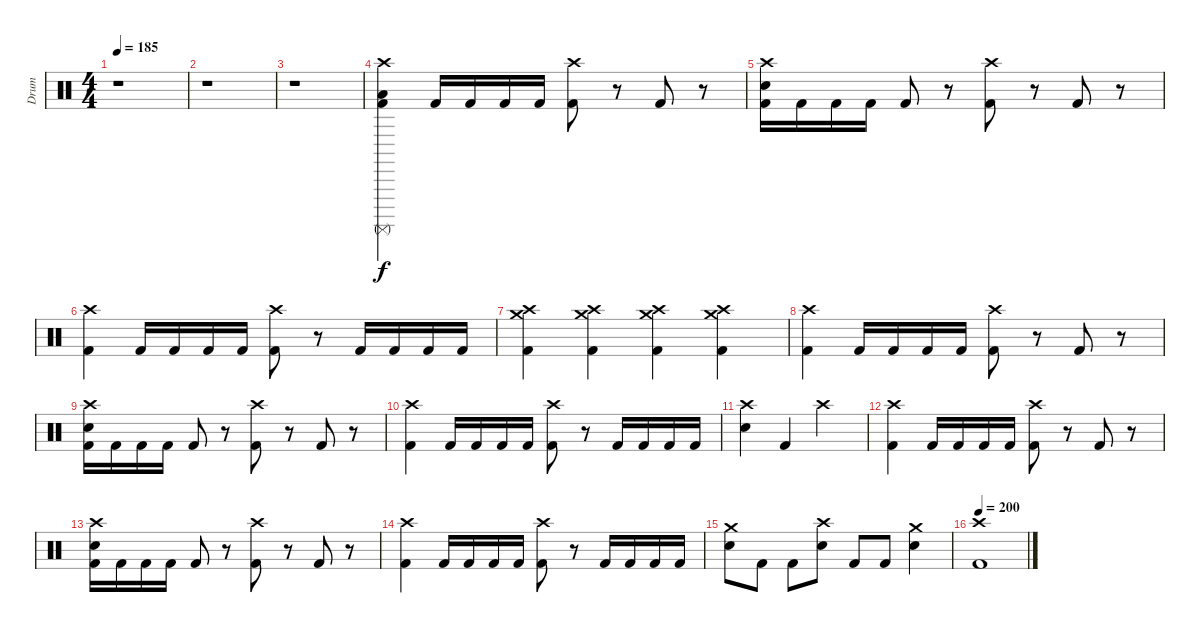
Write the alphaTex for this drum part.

\track ("Drum" "Drum") {instrument percussion}
\staff
\articulation defaults
\ts (4 4)
\tempo 185
\clef neutral
\ks c
r.1{dy f} |
r.1 |
r.1 |
("Crash high (hit)" "Surdo (mute)" "Low Tom (hit)" "Kick (hit) 2").4 "Kick (hit) 2".16 "Kick (hit) 2".16 "Kick (hit) 2".16 "Kick (hit) 2".16 ("Crash high (hit)" "Kick (hit) 2").8 r.8 "Kick (hit) 2".8 r.8 |
("Crash high (hit)" "Electric Snare (hit)" "Kick (hit) 2").16 "Kick (hit) 2".16 "Kick (hit) 2".16 "Kick (hit) 2".16 "Kick (hit) 2".8 r.8 ("Crash high (hit)" "Kick (hit) 2").8 r.8 "Kick (hit) 2".8 r.8 |
("Crash high (hit)" "Kick (hit) 2").4 "Kick (hit) 2".16 "Kick (hit) 2".16 "Kick (hit) 2".16 "Kick (hit) 2".16 ("Crash high (hit)" "Kick (hit) 2").8 r.8 "Kick (hit) 2".16 "Kick (hit) 2".16 "Kick (hit) 2".16 "Kick (hit) 2".16 |
("Crash high (hit)" "Crash medium (hit)" "Kick (hit) 2").4 ("Crash high (hit)" "Crash medium (hit)" "Kick (hit) 2").4 ("Crash high (hit)" "Crash medium (hit)" "Kick (hit) 2").4 ("Crash high (hit)" "Crash medium (hit)" "Kick (hit) 2").4 |
("Crash high (hit)" "Kick (hit) 2").4 "Kick (hit) 2".16 "Kick (hit) 2".16 "Kick (hit) 2".16 "Kick (hit) 2".16 ("Crash high (hit)" "Kick (hit) 2").8 r.8 "Kick (hit) 2".8 r.8 |
("Crash high (hit)" "Electric Snare (hit)" "Kick (hit) 2").16 "Kick (hit) 2".16 "Kick (hit) 2".16 "Kick (hit) 2".16 "Kick (hit) 2".8 r.8 ("Crash high (hit)" "Kick (hit) 2").8 r.8 "Kick (hit) 2".8 r.8 |
("Crash high (hit)" "Kick (hit) 2").4 "Kick (hit) 2".16 "Kick (hit) 2".16 "Kick (hit) 2".16 "Kick (hit) 2".16 ("Crash high (hit)" "Kick (hit) 2").8 r.8 "Kick (hit) 2".16 "Kick (hit) 2".16 "Kick (hit) 2".16 "Kick (hit) 2".16 |
("Crash high (hit)" "Electric Snare (hit)").4 "Kick (hit) 2".4 "Crash high (hit)".2 |
("Crash high (hit)" "Kick (hit) 2").4 "Kick (hit) 2".16 "Kick (hit) 2".16 "Kick (hit) 2".16 "Kick (hit) 2".16 ("Crash high (hit)" "Kick (hit) 2").8 r.8 "Kick (hit) 2".8 r.8 |
("Crash high (hit)" "Electric Snare (hit)" "Kick (hit) 2").16 "Kick (hit) 2".16 "Kick (hit) 2".16 "Kick (hit) 2".16 "Kick (hit) 2".8 r.8 ("Crash high (hit)" "Kick (hit) 2").8 r.8 "Kick (hit) 2".8 r.8 |
("Crash high (hit)" "Kick (hit) 2").4 "Kick (hit) 2".16 "Kick (hit) 2".16 "Kick (hit) 2".16 "Kick (hit) 2".16 ("Crash high (hit)" "Kick (hit) 2").8 r.8 "Kick (hit) 2".16 "Kick (hit) 2".16 "Kick (hit) 2".16 "Kick (hit) 2".16 |
("Crash medium (hit)" "Electric Snare (hit)").8 "Kick (hit) 2".8 "Kick (hit) 2".8 ("Crash high (hit)" "Electric Snare (hit)").8 "Kick (hit) 2".8 "Kick (hit) 2".8 ("Crash medium (hit)" "Electric Snare (hit)").4 |
\tempo 200
("Crash high (hit)" "Kick (hit) 2").1
